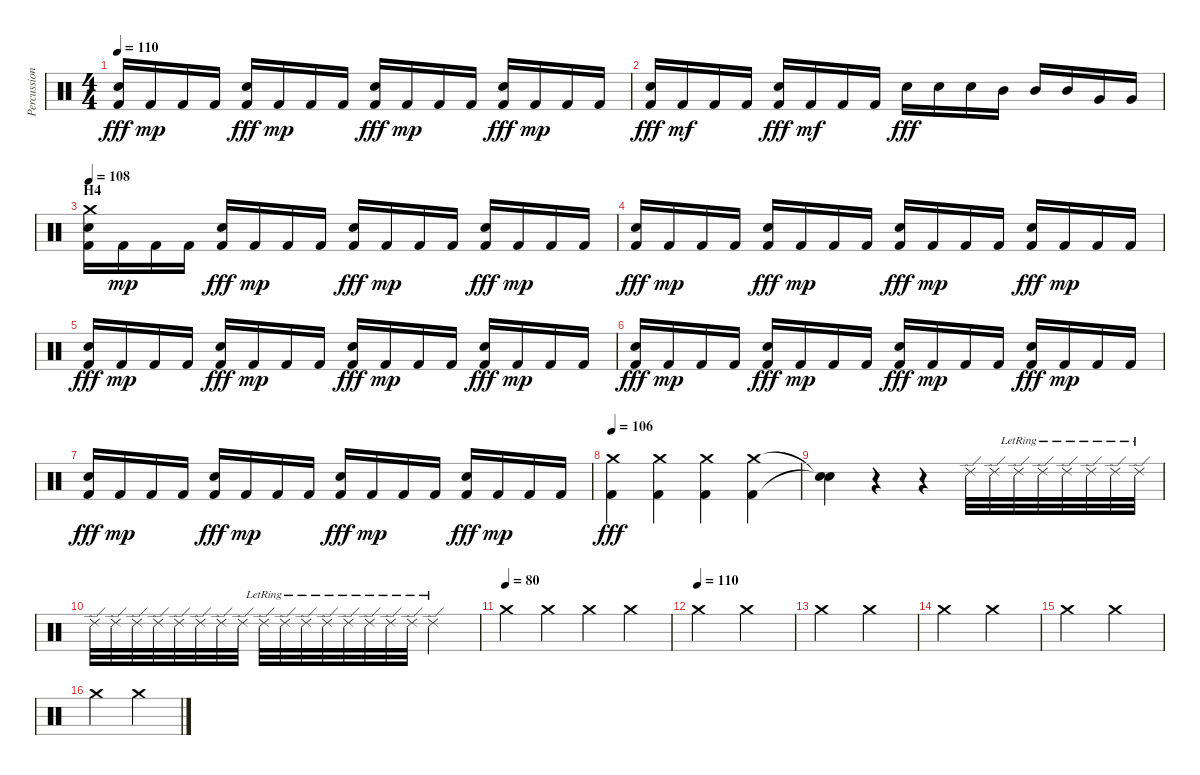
\track ("Percussion" "Percussion") {instrument percussion}
\staff {score}
\articulation defaults
\ts (4 4)
\tempo 110
\clef neutral
\ks c
("Kick (hit) 2" "Electric Snare (hit)").16{dy fff} "Kick (hit) 2".16{dy mp} "Kick (hit) 2".16 "Kick (hit) 2".16 ("Kick (hit) 2" "Electric Snare (hit)").16{dy fff} "Kick (hit) 2".16{dy mp} "Kick (hit) 2".16 "Kick (hit) 2".16 ("Kick (hit) 2" "Electric Snare (hit)").16{dy fff} "Kick (hit) 2".16{dy mp} "Kick (hit) 2".16 "Kick (hit) 2".16 ("Kick (hit) 2" "Electric Snare (hit)").16{dy fff} "Kick (hit) 2".16{dy mp} "Kick (hit) 2".16 "Kick (hit) 2".16 |
("Kick (hit) 2" "Electric Snare (hit)").16{dy fff} "Kick (hit) 2".16{dy mf} "Kick (hit) 2".16 "Kick (hit) 2".16 ("Kick (hit) 2" "Electric Snare (hit)").16{dy fff} "Kick (hit) 2".16{dy mf} "Kick (hit) 2".16 "Kick (hit) 2".16 "Electric Snare (hit)".16{dy fff} "Electric Snare (hit)".16 "Electric Snare (hit)".16 "Mid Tom (hit)".16 "Mid Tom (hit)".16 "Mid Tom (hit)".16 "Very Low Tom (hit)".16 "Very Low Tom (hit)".16 |
\section ("" "H4")
\tempo 108
("Kick (hit) 2" "Electric Snare (hit)" "Crash medium (hit)").16 "Kick (hit) 2".16{dy mp} "Kick (hit) 2".16 "Kick (hit) 2".16 ("Kick (hit) 2" "Electric Snare (hit)").16{dy fff} "Kick (hit) 2".16{dy mp} "Kick (hit) 2".16 "Kick (hit) 2".16 ("Kick (hit) 2" "Electric Snare (hit)").16{dy fff} "Kick (hit) 2".16{dy mp} "Kick (hit) 2".16 "Kick (hit) 2".16 ("Kick (hit) 2" "Electric Snare (hit)").16{dy fff} "Kick (hit) 2".16{dy mp} "Kick (hit) 2".16 "Kick (hit) 2".16 |
("Kick (hit) 2" "Electric Snare (hit)").16{dy fff} "Kick (hit) 2".16{dy mp} "Kick (hit) 2".16 "Kick (hit) 2".16 ("Kick (hit) 2" "Electric Snare (hit)").16{dy fff} "Kick (hit) 2".16{dy mp} "Kick (hit) 2".16 "Kick (hit) 2".16 ("Kick (hit) 2" "Electric Snare (hit)").16{dy fff} "Kick (hit) 2".16{dy mp} "Kick (hit) 2".16 "Kick (hit) 2".16 ("Kick (hit) 2" "Electric Snare (hit)").16{dy fff} "Kick (hit) 2".16{dy mp} "Kick (hit) 2".16 "Kick (hit) 2".16 |
("Kick (hit) 2" "Electric Snare (hit)").16{dy fff} "Kick (hit) 2".16{dy mp} "Kick (hit) 2".16 "Kick (hit) 2".16 ("Kick (hit) 2" "Electric Snare (hit)").16{dy fff} "Kick (hit) 2".16{dy mp} "Kick (hit) 2".16 "Kick (hit) 2".16 ("Kick (hit) 2" "Electric Snare (hit)").16{dy fff} "Kick (hit) 2".16{dy mp} "Kick (hit) 2".16 "Kick (hit) 2".16 ("Kick (hit) 2" "Electric Snare (hit)").16{dy fff} "Kick (hit) 2".16{dy mp} "Kick (hit) 2".16 "Kick (hit) 2".16 |
("Kick (hit) 2" "Electric Snare (hit)").16{dy fff} "Kick (hit) 2".16{dy mp} "Kick (hit) 2".16 "Kick (hit) 2".16 ("Kick (hit) 2" "Electric Snare (hit)").16{dy fff} "Kick (hit) 2".16{dy mp} "Kick (hit) 2".16 "Kick (hit) 2".16 ("Kick (hit) 2" "Electric Snare (hit)").16{dy fff} "Kick (hit) 2".16{dy mp} "Kick (hit) 2".16 "Kick (hit) 2".16 ("Kick (hit) 2" "Electric Snare (hit)").16{dy fff} "Kick (hit) 2".16{dy mp} "Kick (hit) 2".16 "Kick (hit) 2".16 |
("Kick (hit) 2" "Electric Snare (hit)").16{dy fff} "Kick (hit) 2".16{dy mp} "Kick (hit) 2".16 "Kick (hit) 2".16 ("Kick (hit) 2" "Electric Snare (hit)").16{dy fff} "Kick (hit) 2".16{dy mp} "Kick (hit) 2".16 "Kick (hit) 2".16 ("Kick (hit) 2" "Electric Snare (hit)").16{dy fff} "Kick (hit) 2".16{dy mp} "Kick (hit) 2".16 "Kick (hit) 2".16 ("Kick (hit) 2" "Electric Snare (hit)").16{dy fff} "Kick (hit) 2".16{dy mp} "Kick (hit) 2".16 "Kick (hit) 2".16 |
\tempo 106
("Kick (hit) 2" "Crash medium (hit)").4{dy fff} ("Kick (hit) 2" "Crash medium (hit)").4 ("Kick (hit) 2" "Crash medium (hit)").4 ("Kick (hit) 2" "Crash medium (hit)").4 |
("Snare (hit)"{t} "Snare (hit)"{t}).4 r.4 r.4 "Ride (edge) 2".32 "Ride (edge) 2".32 "Ride (edge) 2"{lr}.32 "Ride (edge) 2"{lr}.32 "Ride (edge) 2"{lr}.32 "Ride (edge) 2"{lr}.32 "Ride (edge) 2"{lr}.32 "Ride (edge) 2"{lr}.32 |
"Ride (edge) 2".32 "Ride (edge) 2".32 "Ride (edge) 2".32 "Ride (edge) 2".32 "Ride (edge) 2".32 "Ride (edge) 2".32 "Ride (edge) 2".32 "Ride (edge) 2".32 "Ride (edge) 2"{lr}.32 "Ride (edge) 2"{lr}.32 "Ride (edge) 2"{lr}.32 "Ride (edge) 2"{lr}.32 "Ride (edge) 2"{lr}.32 "Ride (edge) 2"{lr}.32 "Ride (edge) 2"{lr}.32 "Ride (edge) 2"{lr}.32 "Ride (edge) 2"{lr}.2 |
\tempo (80)
"Crash medium (hit)".4 "Crash medium (hit)".4 "Crash medium (hit)".4 "Crash medium (hit)".4 |
\tempo (110)
"Crash medium (hit)".2 "Crash medium (hit)".2 |
"Crash medium (hit)".2 "Crash medium (hit)".2 |
"Crash medium (hit)".2 "Crash medium (hit)".2 |
"Crash medium (hit)".2 "Crash medium (hit)".2 |
"Crash medium (hit)".2 "Crash medium (hit)".2
